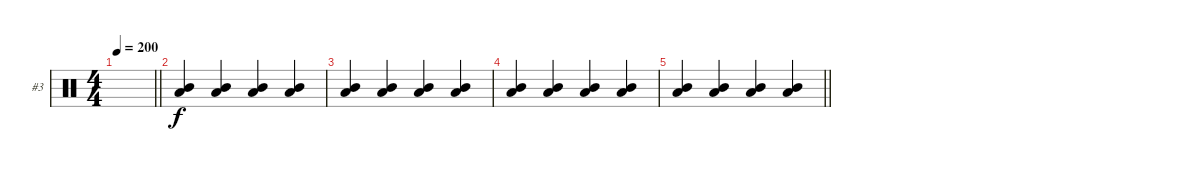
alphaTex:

\bracketExtendMode groupsimilarinstruments
\firstSystemTrackNameOrientation horizontal
\otherSystemsTrackNameOrientation horizontal
\track ("Chris Fehn" "#3") {instrument percussion}
\staff {score}
\articulation defaults
\ts (4 4)
\tempo 200
\clef neutral
\barLineRight lightlight
\ks c
|
("Low Tom (hit)" "Mid Tom (hit)").4 ("Low Tom (hit)" "Mid Tom (hit)").4 ("Low Tom (hit)" "Mid Tom (hit)").4 ("Low Tom (hit)" "Mid Tom (hit)").4 |
("Low Tom (hit)" "Mid Tom (hit)").4 ("Low Tom (hit)" "Mid Tom (hit)").4 ("Low Tom (hit)" "Mid Tom (hit)").4 ("Low Tom (hit)" "Mid Tom (hit)").4 |
("Low Tom (hit)" "Mid Tom (hit)").4 ("Low Tom (hit)" "Mid Tom (hit)").4 ("Low Tom (hit)" "Mid Tom (hit)").4 ("Low Tom (hit)" "Mid Tom (hit)").4 |
\barLineRight lightlight
("Low Tom (hit)" "Mid Tom (hit)").4 ("Low Tom (hit)" "Mid Tom (hit)").4 ("Low Tom (hit)" "Mid Tom (hit)").4 ("Low Tom (hit)" "Mid Tom (hit)").4
